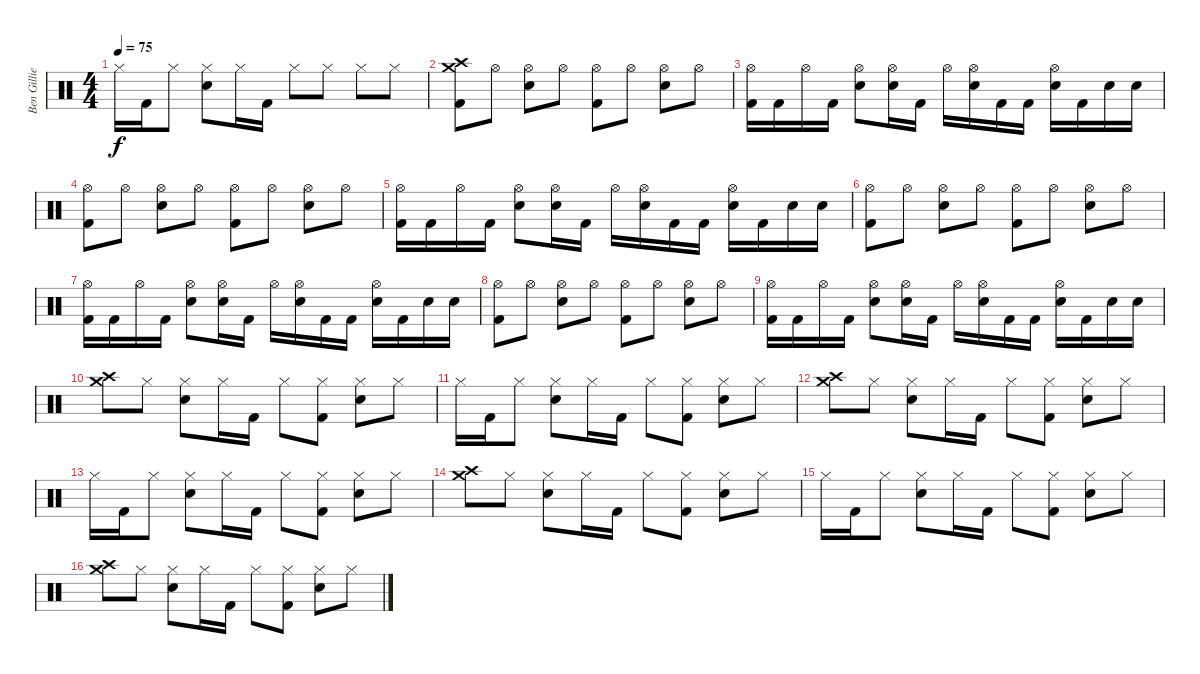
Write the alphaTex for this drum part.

\track ("Ben Gillies" "Ben Gillie") {instrument percussion}
\staff {score}
\articulation defaults
\ts (4 4)
\tempo 75
\clef neutral
\ks c "Hi-Hat (closed)".16{dy f} "Kick (hit) 2".16 "Hi-Hat (closed)".8
("Hi-Hat (closed)" "Electric Snare (hit)").8 "Hi-Hat (closed)".16 "Kick (hit) 2".16 "Hi-Hat (closed)".8 "Hi-Hat (closed)".8 "Hi-Hat (closed)".8 "Hi-Hat (closed)".8 |
("Crash high (hit)" "Crash medium (hit)" "Kick (hit) 2").8 "Hi-Hat (open)".8 ("Hi-Hat (open)" "Electric Snare (hit)").8 "Hi-Hat (open)".8 ("Hi-Hat (open)" "Kick (hit) 2").8 "Hi-Hat (open)".8 ("Hi-Hat (open)" "Electric Snare (hit)").8 "Hi-Hat (open)".8 |
("Hi-Hat (open)" "Kick (hit) 2").16 "Kick (hit) 2".16 "Hi-Hat (open)".16 "Kick (hit) 2".16 ("Hi-Hat (open)" "Electric Snare (hit)").8 ("Hi-Hat (open)" "Electric Snare (hit)").16 "Kick (hit) 2".16 "Hi-Hat (open)".16 ("Hi-Hat (open)" "Electric Snare (hit)").16 "Kick (hit) 2".16 "Kick (hit) 2".16 ("Hi-Hat (open)" "Electric Snare (hit)").16 "Kick (hit) 2".16 "Electric Snare (hit)".16 "Electric Snare (hit)".16 |
("Hi-Hat (open)" "Kick (hit) 2").8 "Hi-Hat (open)".8 ("Hi-Hat (open)" "Electric Snare (hit)").8 "Hi-Hat (open)".8 ("Hi-Hat (open)" "Kick (hit) 2").8 "Hi-Hat (open)".8 ("Hi-Hat (open)" "Electric Snare (hit)").8 "Hi-Hat (open)".8 |
("Hi-Hat (open)" "Kick (hit) 2").16 "Kick (hit) 2".16 "Hi-Hat (open)".16 "Kick (hit) 2".16 ("Hi-Hat (open)" "Electric Snare (hit)").8 ("Hi-Hat (open)" "Electric Snare (hit)").16 "Kick (hit) 2".16 "Hi-Hat (open)".16 ("Hi-Hat (open)" "Electric Snare (hit)").16 "Kick (hit) 2".16 "Kick (hit) 2".16 ("Hi-Hat (open)" "Electric Snare (hit)").16 "Kick (hit) 2".16 "Electric Snare (hit)".16 "Electric Snare (hit)".16 |
("Hi-Hat (open)" "Kick (hit) 2").8 "Hi-Hat (open)".8 ("Hi-Hat (open)" "Electric Snare (hit)").8 "Hi-Hat (open)".8 ("Hi-Hat (open)" "Kick (hit) 2").8 "Hi-Hat (open)".8 ("Hi-Hat (open)" "Electric Snare (hit)").8 "Hi-Hat (open)".8 |
("Hi-Hat (open)" "Kick (hit) 2").16 "Kick (hit) 2".16 "Hi-Hat (open)".16 "Kick (hit) 2".16 ("Hi-Hat (open)" "Electric Snare (hit)").8 ("Hi-Hat (open)" "Electric Snare (hit)").16 "Kick (hit) 2".16 "Hi-Hat (open)".16 ("Hi-Hat (open)" "Electric Snare (hit)").16 "Kick (hit) 2".16 "Kick (hit) 2".16 ("Hi-Hat (open)" "Electric Snare (hit)").16 "Kick (hit) 2".16 "Electric Snare (hit)".16 "Electric Snare (hit)".16 |
("Hi-Hat (open)" "Kick (hit) 2").8 "Hi-Hat (open)".8 ("Hi-Hat (open)" "Electric Snare (hit)").8 "Hi-Hat (open)".8 ("Hi-Hat (open)" "Kick (hit) 2").8 "Hi-Hat (open)".8 ("Hi-Hat (open)" "Electric Snare (hit)").8 "Hi-Hat (open)".8 |
("Hi-Hat (open)" "Kick (hit) 2").16 "Kick (hit) 2".16 "Hi-Hat (open)".16 "Kick (hit) 2".16 ("Hi-Hat (open)" "Electric Snare (hit)").8 ("Hi-Hat (open)" "Electric Snare (hit)").16 "Kick (hit) 2".16 "Hi-Hat (open)".16 ("Hi-Hat (open)" "Electric Snare (hit)").16 "Kick (hit) 2".16 "Kick (hit) 2".16 ("Hi-Hat (open)" "Electric Snare (hit)").16 "Kick (hit) 2".16 "Electric Snare (hit)".16 "Electric Snare (hit)".16 |
("Crash high (hit)" "Crash medium (hit)").8 "Hi-Hat (closed)".8 ("Hi-Hat (closed)" "Electric Snare (hit)").8 "Hi-Hat (closed)".16 "Kick (hit) 2".16 "Hi-Hat (closed)".8 ("Hi-Hat (closed)" "Kick (hit) 2").8 ("Hi-Hat (closed)" "Electric Snare (hit)").8 "Hi-Hat (closed)".8 |
"Hi-Hat (closed)".16 "Kick (hit) 2".16 "Hi-Hat (closed)".8 ("Hi-Hat (closed)" "Electric Snare (hit)").8 "Hi-Hat (closed)".16 "Kick (hit) 2".16 "Hi-Hat (closed)".8 ("Hi-Hat (closed)" "Kick (hit) 2").8 ("Hi-Hat (closed)" "Electric Snare (hit)").8 "Hi-Hat (closed)".8 |
("Crash high (hit)" "Crash medium (hit)").8 "Hi-Hat (closed)".8 ("Hi-Hat (closed)" "Electric Snare (hit)").8 "Hi-Hat (closed)".16 "Kick (hit) 2".16 "Hi-Hat (closed)".8 ("Hi-Hat (closed)" "Kick (hit) 2").8 ("Hi-Hat (closed)" "Electric Snare (hit)").8 "Hi-Hat (closed)".8 |
"Hi-Hat (closed)".16 "Kick (hit) 2".16 "Hi-Hat (closed)".8 ("Hi-Hat (closed)" "Electric Snare (hit)").8 "Hi-Hat (closed)".16 "Kick (hit) 2".16 "Hi-Hat (closed)".8 ("Hi-Hat (closed)" "Kick (hit) 2").8 ("Hi-Hat (closed)" "Electric Snare (hit)").8 "Hi-Hat (closed)".8 |
("Crash high (hit)" "Crash medium (hit)").8 "Hi-Hat (closed)".8 ("Hi-Hat (closed)" "Electric Snare (hit)").8 "Hi-Hat (closed)".16 "Kick (hit) 2".16 "Hi-Hat (closed)".8 ("Hi-Hat (closed)" "Kick (hit) 2").8 ("Hi-Hat (closed)" "Electric Snare (hit)").8 "Hi-Hat (closed)".8 |
"Hi-Hat (closed)".16 "Kick (hit) 2".16 "Hi-Hat (closed)".8 ("Hi-Hat (closed)" "Electric Snare (hit)").8 "Hi-Hat (closed)".16 "Kick (hit) 2".16 "Hi-Hat (closed)".8 ("Hi-Hat (closed)" "Kick (hit) 2").8 ("Hi-Hat (closed)" "Electric Snare (hit)").8 "Hi-Hat (closed)".8 |
("Crash high (hit)" "Crash medium (hit)").8 "Hi-Hat (closed)".8 ("Hi-Hat (closed)" "Electric Snare (hit)").8 "Hi-Hat (closed)".16 "Kick (hit) 2".16 "Hi-Hat (closed)".8 ("Hi-Hat (closed)" "Kick (hit) 2").8 ("Hi-Hat (closed)" "Electric Snare (hit)").8 "Hi-Hat (closed)".8
